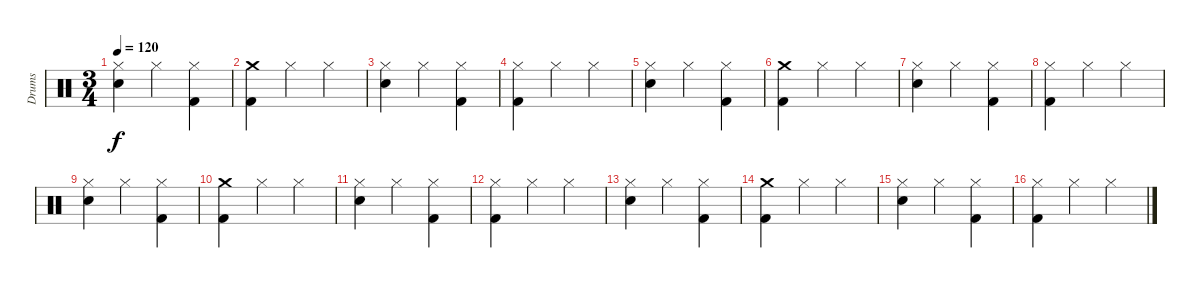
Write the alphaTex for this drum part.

\track ("Drums" "Drums") {instrument percussion}
\staff {score}
\articulation defaults
\ts (3 4)
\tempo 120
\clef neutral
\ks c
("Hi-Hat (closed)" "Electric Snare (hit)").4{dy f} "Hi-Hat (closed)".4 ("Hi-Hat (closed)" "Kick (hit) 2").4 |
("Crash medium (hit)" "Kick (hit) 2").4 "Hi-Hat (closed)".4 "Hi-Hat (closed)".4 |
("Hi-Hat (closed)" "Electric Snare (hit)").4 "Hi-Hat (closed)".4 ("Hi-Hat (closed)" "Kick (hit) 2").4 |
("Hi-Hat (closed)" "Kick (hit) 2").4 "Hi-Hat (closed)".4 "Hi-Hat (closed)".4 |
("Hi-Hat (closed)" "Electric Snare (hit)").4 "Hi-Hat (closed)".4 ("Hi-Hat (closed)" "Kick (hit) 2").4 |
("Crash medium (hit)" "Kick (hit) 2").4 "Hi-Hat (closed)".4 "Hi-Hat (closed)".4 |
("Hi-Hat (closed)" "Electric Snare (hit)").4 "Hi-Hat (closed)".4 ("Hi-Hat (closed)" "Kick (hit) 2").4 |
("Hi-Hat (closed)" "Kick (hit) 2").4 "Hi-Hat (closed)".4 "Hi-Hat (closed)".4 |
("Hi-Hat (closed)" "Electric Snare (hit)").4 "Hi-Hat (closed)".4 ("Hi-Hat (closed)" "Kick (hit) 2").4 |
("Crash medium (hit)" "Kick (hit) 2").4 "Hi-Hat (closed)".4 "Hi-Hat (closed)".4 |
("Hi-Hat (closed)" "Electric Snare (hit)").4 "Hi-Hat (closed)".4 ("Hi-Hat (closed)" "Kick (hit) 2").4 |
("Hi-Hat (closed)" "Kick (hit) 2").4 "Hi-Hat (closed)".4 "Hi-Hat (closed)".4 |
("Hi-Hat (closed)" "Electric Snare (hit)").4 "Hi-Hat (closed)".4 ("Hi-Hat (closed)" "Kick (hit) 2").4 |
("Crash medium (hit)" "Kick (hit) 2").4 "Hi-Hat (closed)".4 "Hi-Hat (closed)".4 |
("Hi-Hat (closed)" "Electric Snare (hit)").4 "Hi-Hat (closed)".4 ("Hi-Hat (closed)" "Kick (hit) 2").4 |
("Hi-Hat (closed)" "Kick (hit) 2").4 "Hi-Hat (closed)".4 "Hi-Hat (closed)".4
